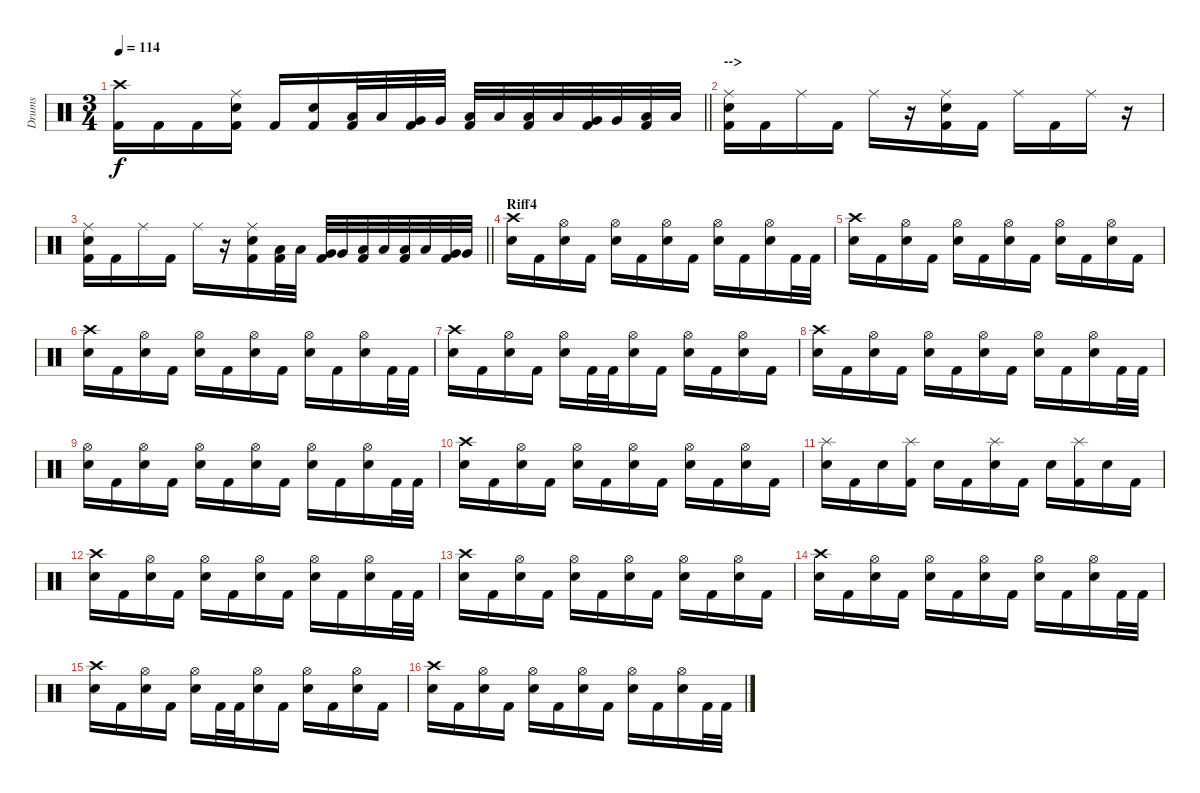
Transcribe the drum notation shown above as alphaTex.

\track ("Drums" "Drums") {instrument percussion}
\staff {score}
\articulation defaults
\ts (3 4)
\tempo 114
\clef neutral
\barLineRight lightlight
\ks c
("Crash high (hit)" "Kick (hit) 2").16{dy f} "Kick (hit) 2".16 "Kick (hit) 2".16 ("Ride (middle)" "Snare (hit) 2" "Kick (hit) 2").16 "Kick (hit) 2".16 ("Snare (hit) 2" "Kick (hit) 2").16 ("Low Tom (hit)" "Kick (hit) 2").32 "Low Tom (hit)".32 ("Very Low Tom (hit)" "Kick (hit) 2").32 "Very Low Tom (hit)".32 ("Low Floor Tom (hit)" "Kick (hit) 2").32 "Low Floor Tom (hit)".32 ("Low Tom (hit)" "Kick (hit) 2").32 "Low Tom (hit)".32 ("Very Low Tom (hit)" "Kick (hit) 2").32 "Very Low Tom (hit)".32 ("Low Floor Tom (hit)" "Kick (hit) 2").32 "Low Floor Tom (hit)".32 |
\section ("" "-->")
("Ride (middle)" "Snare (hit) 2" "Kick (hit) 2").16 "Kick (hit) 2".16 "Ride (middle)".16 "Kick (hit) 2".16 "Ride (middle)".16 r.16 ("Ride (middle)" "Snare (hit) 2" "Kick (hit) 2").16 "Kick (hit) 2".16 "Ride (middle)".16 "Kick (hit) 2".16 "Ride (middle)".16 r.16 |
\barLineRight lightlight
("Ride (middle)" "Snare (hit) 2" "Kick (hit) 2").16 "Kick (hit) 2".16 "Ride (middle)".16 "Kick (hit) 2".16 "Ride (middle)".16 r.16 ("Ride (middle)" "Snare (hit) 2" "Kick (hit) 2").16 ("Low Tom (hit)" "Kick (hit) 2").32 "Low Tom (hit)".32 ("Very Low Tom (hit)" "Kick (hit) 2").32 "Very Low Tom (hit)".32 ("Low Floor Tom (hit)" "Kick (hit) 2").32 "Low Floor Tom (hit)".32 ("Low Tom (hit)" "Kick (hit) 2").32 "Low Tom (hit)".32 ("Very Low Tom (hit)" "Kick (hit) 2").32 "Very Low Tom (hit)".32 |
\section ("" "Riff4")
("Crash high (hit)" "Snare (hit) 2").16 "Kick (hit) 2".16 ("Hi-Hat (open)" "Snare (hit) 2").16 "Kick (hit) 2".16 ("Hi-Hat (open)" "Snare (hit) 2").16 "Kick (hit) 2".16 ("Hi-Hat (open)" "Snare (hit) 2").16 "Kick (hit) 2".16 ("Hi-Hat (open)" "Snare (hit) 2").16 "Kick (hit) 2".16 ("Hi-Hat (open)" "Snare (hit) 2").16 "Kick (hit) 2".32 "Kick (hit) 2".32 |
("Crash high (hit)" "Snare (hit) 2").16 "Kick (hit) 2".16 ("Hi-Hat (open)" "Snare (hit) 2").16 "Kick (hit) 2".16 ("Hi-Hat (open)" "Snare (hit) 2").16 "Kick (hit) 2".16 ("Hi-Hat (open)" "Snare (hit) 2").16 "Kick (hit) 2".16 ("Hi-Hat (open)" "Snare (hit) 2").16 "Kick (hit) 2".16 ("Hi-Hat (open)" "Snare (hit) 2").16 "Kick (hit) 2".16 |
("Crash high (hit)" "Snare (hit) 2").16 "Kick (hit) 2".16 ("Hi-Hat (open)" "Snare (hit) 2").16 "Kick (hit) 2".16 ("Hi-Hat (open)" "Snare (hit) 2").16 "Kick (hit) 2".16 ("Hi-Hat (open)" "Snare (hit) 2").16 "Kick (hit) 2".16 ("Hi-Hat (open)" "Snare (hit) 2").16 "Kick (hit) 2".16 ("Hi-Hat (open)" "Snare (hit) 2").16 "Kick (hit) 2".32 "Kick (hit) 2".32 |
("Crash high (hit)" "Snare (hit) 2").16 "Kick (hit) 2".16 ("Hi-Hat (open)" "Snare (hit) 2").16 "Kick (hit) 2".16 ("Hi-Hat (open)" "Snare (hit) 2").16 "Kick (hit) 2".32 "Kick (hit) 2".32 ("Hi-Hat (open)" "Snare (hit) 2").16 "Kick (hit) 2".16 ("Hi-Hat (open)" "Snare (hit) 2").16 "Kick (hit) 2".16 ("Hi-Hat (open)" "Snare (hit) 2").16 "Kick (hit) 2".16 |
("Crash high (hit)" "Snare (hit) 2").16 "Kick (hit) 2".16 ("Hi-Hat (open)" "Snare (hit) 2").16 "Kick (hit) 2".16 ("Hi-Hat (open)" "Snare (hit) 2").16 "Kick (hit) 2".16 ("Hi-Hat (open)" "Snare (hit) 2").16 "Kick (hit) 2".16 ("Hi-Hat (open)" "Snare (hit) 2").16 "Kick (hit) 2".16 ("Hi-Hat (open)" "Snare (hit) 2").16 "Kick (hit) 2".32 "Kick (hit) 2".32 |
("Hi-Hat (open)" "Snare (hit) 2").16 "Kick (hit) 2".16 ("Hi-Hat (open)" "Snare (hit) 2").16 "Kick (hit) 2".16 ("Hi-Hat (open)" "Snare (hit) 2").16 "Kick (hit) 2".16 ("Hi-Hat (open)" "Snare (hit) 2").16 "Kick (hit) 2".16 ("Hi-Hat (open)" "Snare (hit) 2").16 "Kick (hit) 2".16 ("Hi-Hat (open)" "Snare (hit) 2").16 "Kick (hit) 2".32 "Kick (hit) 2".32 |
("Crash high (hit)" "Snare (hit) 2").16 "Kick (hit) 2".16 ("Hi-Hat (open)" "Snare (hit) 2").16 "Kick (hit) 2".16 ("Hi-Hat (open)" "Snare (hit) 2").16 "Kick (hit) 2".16 ("Hi-Hat (open)" "Snare (hit) 2").16 "Kick (hit) 2".16 ("Hi-Hat (open)" "Snare (hit) 2").16 "Kick (hit) 2".16 ("Hi-Hat (open)" "Snare (hit) 2").16 "Kick (hit) 2".16 |
("Splash (hit)" "Snare (hit) 2").16 "Kick (hit) 2".16 "Snare (hit) 2".16 ("Splash (hit)" "Kick (hit) 2").16 "Snare (hit) 2".16 "Kick (hit) 2".16 ("Splash (hit)" "Snare (hit) 2").16 "Kick (hit) 2".16 "Snare (hit) 2".16 ("Splash (hit)" "Kick (hit) 2").16 "Snare (hit) 2".16 "Kick (hit) 2".16 |
("Crash high (hit)" "Snare (hit) 2").16 "Kick (hit) 2".16 ("Hi-Hat (open)" "Snare (hit) 2").16 "Kick (hit) 2".16 ("Hi-Hat (open)" "Snare (hit) 2").16 "Kick (hit) 2".16 ("Hi-Hat (open)" "Snare (hit) 2").16 "Kick (hit) 2".16 ("Hi-Hat (open)" "Snare (hit) 2").16 "Kick (hit) 2".16 ("Hi-Hat (open)" "Snare (hit) 2").16 "Kick (hit) 2".32 "Kick (hit) 2".32 |
("Crash high (hit)" "Snare (hit) 2").16 "Kick (hit) 2".16 ("Hi-Hat (open)" "Snare (hit) 2").16 "Kick (hit) 2".16 ("Hi-Hat (open)" "Snare (hit) 2").16 "Kick (hit) 2".16 ("Hi-Hat (open)" "Snare (hit) 2").16 "Kick (hit) 2".16 ("Hi-Hat (open)" "Snare (hit) 2").16 "Kick (hit) 2".16 ("Hi-Hat (open)" "Snare (hit) 2").16 "Kick (hit) 2".16 |
("Crash high (hit)" "Snare (hit) 2").16 "Kick (hit) 2".16 ("Hi-Hat (open)" "Snare (hit) 2").16 "Kick (hit) 2".16 ("Hi-Hat (open)" "Snare (hit) 2").16 "Kick (hit) 2".16 ("Hi-Hat (open)" "Snare (hit) 2").16 "Kick (hit) 2".16 ("Hi-Hat (open)" "Snare (hit) 2").16 "Kick (hit) 2".16 ("Hi-Hat (open)" "Snare (hit) 2").16 "Kick (hit) 2".32 "Kick (hit) 2".32 |
("Crash high (hit)" "Snare (hit) 2").16 "Kick (hit) 2".16 ("Hi-Hat (open)" "Snare (hit) 2").16 "Kick (hit) 2".16 ("Hi-Hat (open)" "Snare (hit) 2").16 "Kick (hit) 2".32 "Kick (hit) 2".32 ("Hi-Hat (open)" "Snare (hit) 2").16 "Kick (hit) 2".16 ("Hi-Hat (open)" "Snare (hit) 2").16 "Kick (hit) 2".16 ("Hi-Hat (open)" "Snare (hit) 2").16 "Kick (hit) 2".16 |
("Crash high (hit)" "Snare (hit) 2").16 "Kick (hit) 2".16 ("Hi-Hat (open)" "Snare (hit) 2").16 "Kick (hit) 2".16 ("Hi-Hat (open)" "Snare (hit) 2").16 "Kick (hit) 2".16 ("Hi-Hat (open)" "Snare (hit) 2").16 "Kick (hit) 2".16 ("Hi-Hat (open)" "Snare (hit) 2").16 "Kick (hit) 2".16 ("Hi-Hat (open)" "Snare (hit) 2").16 "Kick (hit) 2".32 "Kick (hit) 2".32
